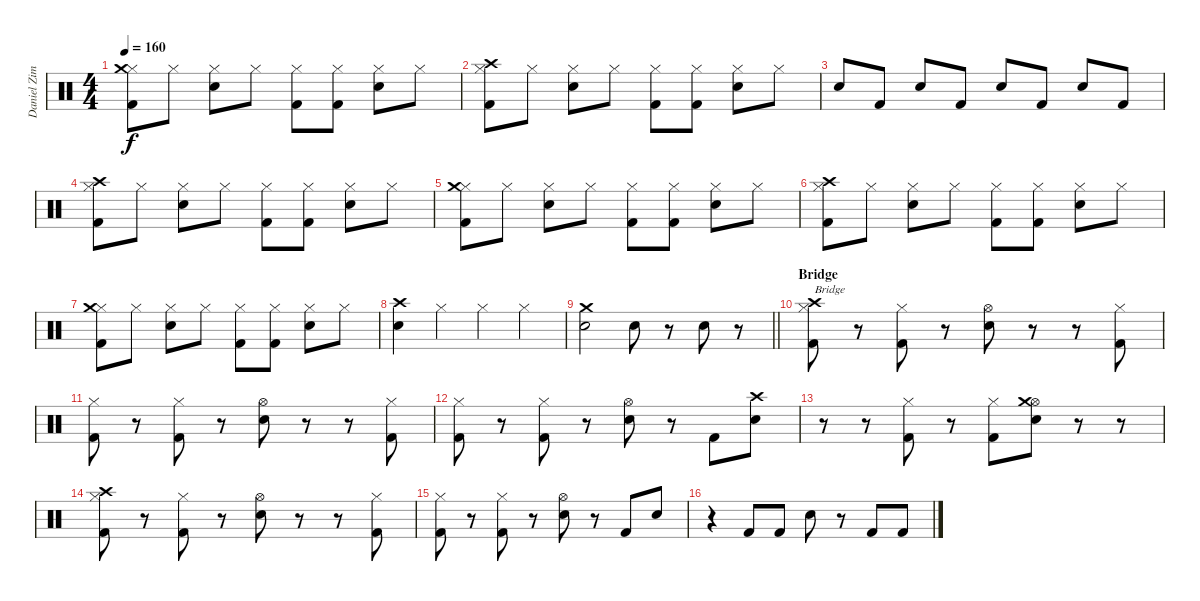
\track ("Daniel Zimmermann" "Daniel Zim") {instrument percussion}
\staff {score}
\articulation defaults
\ts (4 4)
\tempo 160
\clef neutral
\ks c
("Hi-Hat (closed)" "Kick (hit) 2" "Crash medium (hit)").8{dy f} "Hi-Hat (closed)".8 ("Hi-Hat (closed)" "Snare (hit) 2").8 "Hi-Hat (closed)".8 ("Hi-Hat (closed)" "Kick (hit) 2").8 ("Hi-Hat (closed)" "Kick (hit) 2").8 ("Hi-Hat (closed)" "Snare (hit) 2").8 "Hi-Hat (closed)".8 |
("Hi-Hat (closed)" "Kick (hit) 2" "Crash high (hit)").8 "Hi-Hat (closed)".8 ("Hi-Hat (closed)" "Snare (hit) 2").8 "Hi-Hat (closed)".8 ("Hi-Hat (closed)" "Kick (hit) 2").8 ("Hi-Hat (closed)" "Kick (hit) 2").8 ("Hi-Hat (closed)" "Snare (hit) 2").8 "Hi-Hat (closed)".8 |
"Snare (hit) 2".8 "Kick (hit) 2".8 "Snare (hit) 2".8 "Kick (hit) 2".8 "Snare (hit) 2".8 "Kick (hit) 2".8 "Snare (hit) 2".8 "Kick (hit) 2".8 |
("Hi-Hat (closed)" "Kick (hit) 2" "Crash high (hit)").8 "Hi-Hat (closed)".8 ("Hi-Hat (closed)" "Snare (hit) 2").8 "Hi-Hat (closed)".8 ("Hi-Hat (closed)" "Kick (hit) 2").8 ("Hi-Hat (closed)" "Kick (hit) 2").8 ("Hi-Hat (closed)" "Snare (hit) 2").8 "Hi-Hat (closed)".8 |
("Hi-Hat (closed)" "Kick (hit) 2" "Crash medium (hit)").8 "Hi-Hat (closed)".8 ("Hi-Hat (closed)" "Snare (hit) 2").8 "Hi-Hat (closed)".8 ("Hi-Hat (closed)" "Kick (hit) 2").8 ("Hi-Hat (closed)" "Kick (hit) 2").8 ("Hi-Hat (closed)" "Snare (hit) 2").8 "Hi-Hat (closed)".8 |
("Hi-Hat (closed)" "Kick (hit) 2" "Crash high (hit)").8 "Hi-Hat (closed)".8 ("Hi-Hat (closed)" "Snare (hit) 2").8 "Hi-Hat (closed)".8 ("Hi-Hat (closed)" "Kick (hit) 2").8 ("Hi-Hat (closed)" "Kick (hit) 2").8 ("Hi-Hat (closed)" "Snare (hit) 2").8 "Hi-Hat (closed)".8 |
("Hi-Hat (closed)" "Kick (hit) 2" "Crash medium (hit)").8 "Hi-Hat (closed)".8 ("Hi-Hat (closed)" "Snare (hit) 2").8 "Hi-Hat (closed)".8 ("Hi-Hat (closed)" "Kick (hit) 2").8 ("Hi-Hat (closed)" "Kick (hit) 2").8 ("Hi-Hat (closed)" "Snare (hit) 2").8 "Hi-Hat (closed)".8 |
("Snare (hit) 2" "Crash high (hit)").4 "Hi-Hat (closed)".4 "Hi-Hat (closed)".4 "Hi-Hat (closed)".4 |
\barLineRight lightlight
("Snare (hit) 2" "Crash medium (hit)").2 "Snare (hit) 2".8 r.8 "Snare (hit) 2".8 r.8 |
\section ("" "Bridge")
("Hi-Hat (closed)" "Kick (hit) 2" "Crash high (hit)").8{txt "Bridge"} r.8 ("Hi-Hat (closed)" "Kick (hit) 2").8 r.8 ("Hi-Hat (open)" "Snare (hit) 2").8 r.8 r.8 ("Hi-Hat (closed)" "Kick (hit) 2").8 |
("Hi-Hat (closed)" "Kick (hit) 2").8 r.8 ("Hi-Hat (closed)" "Kick (hit) 2").8 r.8 ("Hi-Hat (open)" "Snare (hit) 2").8 r.8 r.8 ("Hi-Hat (closed)" "Kick (hit) 2").8 |
("Hi-Hat (closed)" "Kick (hit) 2").8 r.8 ("Hi-Hat (closed)" "Kick (hit) 2").8 r.8 ("Hi-Hat (open)" "Snare (hit) 2").8 r.8 "Kick (hit) 2".8 ("Snare (hit) 2" "Crash high (hit)").8 |
r.8 r.8 ("Hi-Hat (closed)" "Kick (hit) 2").8 r.8 ("Hi-Hat (closed)" "Kick (hit) 2").8 ("Hi-Hat (open)" "Snare (hit) 2" "Crash medium (hit)").8 r.8 r.8 |
("Hi-Hat (closed)" "Kick (hit) 2" "Crash high (hit)").8 r.8 ("Hi-Hat (closed)" "Kick (hit) 2").8 r.8 ("Hi-Hat (open)" "Snare (hit) 2").8 r.8 r.8 ("Hi-Hat (closed)" "Kick (hit) 2").8 |
("Hi-Hat (closed)" "Kick (hit) 2").8 r.8 ("Hi-Hat (closed)" "Kick (hit) 2").8 r.8 ("Hi-Hat (open)" "Snare (hit) 2").8 r.8 "Kick (hit) 2".8 "Snare (hit) 2".8 |
r.4 "Kick (hit) 2".8 "Kick (hit) 2".8 "Snare (hit) 2".8 r.8 "Kick (hit) 2".8 "Kick (hit) 2".8
